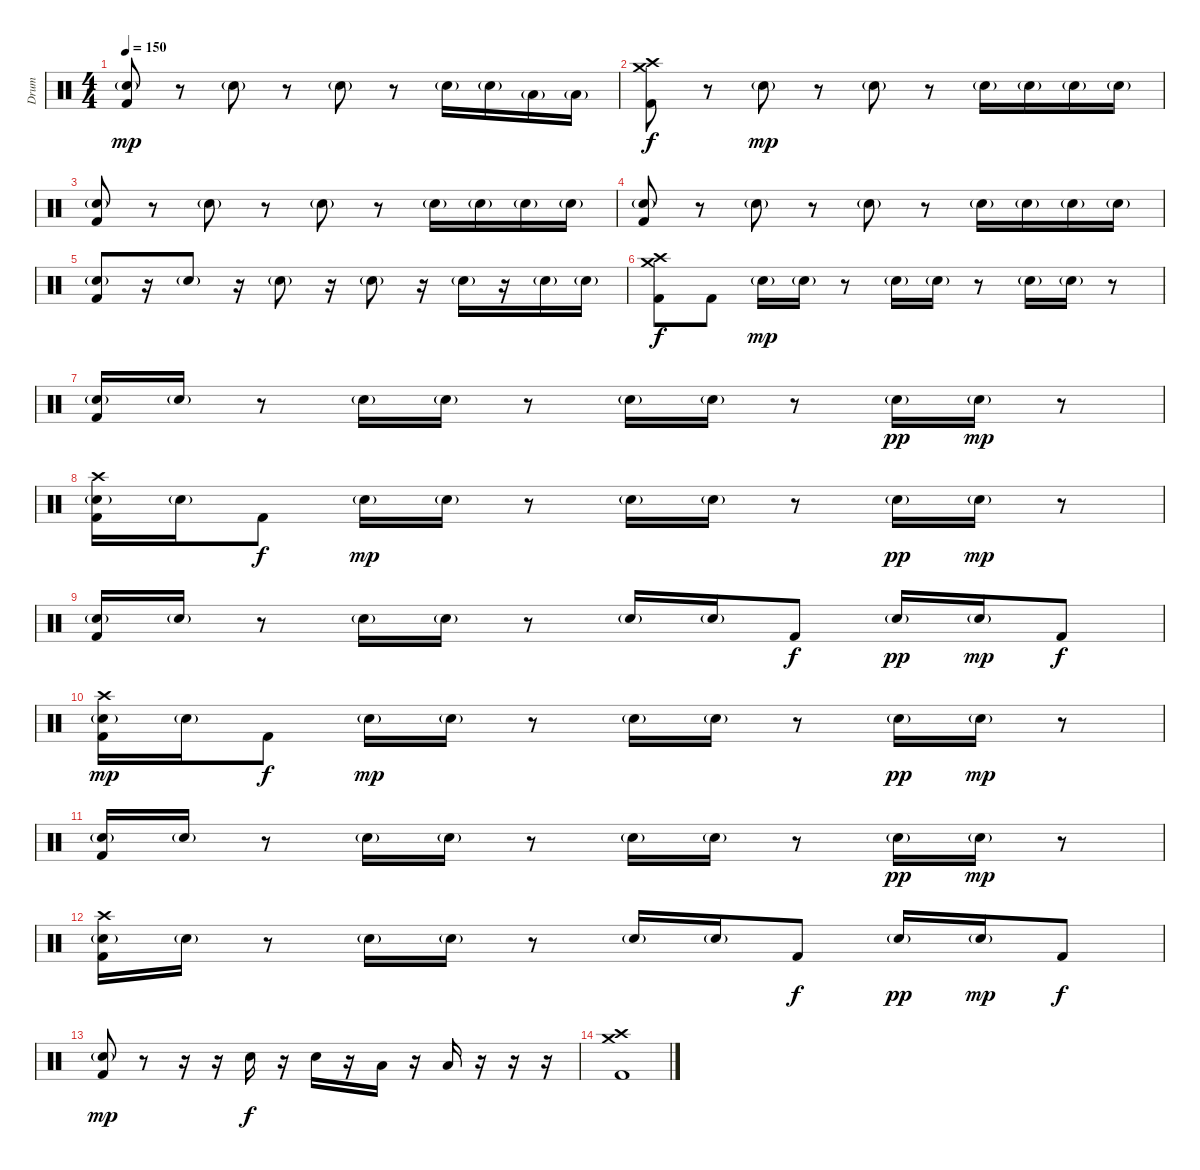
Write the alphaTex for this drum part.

\track ("Drum" "Drum") {instrument percussion}
\staff {score}
\articulation defaults
\ts (4 4)
\tempo 150
\clef neutral
\ks c
("Electric Snare (hit)"{g} "Kick (hit) 2").8{dy mp} r.8 "Electric Snare (hit)"{g}.8 r.8 "Electric Snare (hit)"{g}.8 r.8 "Electric Snare (hit)"{g}.16 "Electric Snare (hit)"{g}.16 "Low Floor Tom (hit)"{g}.16 "Low Floor Tom (hit)"{g}.16 |
("Crash high (hit)" "Crash medium (hit)" "Kick (hit) 2").8{dy f} r.8 "Electric Snare (hit)"{g}.8{dy mp} r.8 "Electric Snare (hit)"{g}.8 r.8 "Electric Snare (hit)"{g}.16 "Electric Snare (hit)"{g}.16 "Electric Snare (hit)"{g}.16 "Electric Snare (hit)"{g}.16 |
("Electric Snare (hit)"{g} "Kick (hit) 2").8 r.8 "Electric Snare (hit)"{g}.8 r.8 "Electric Snare (hit)"{g}.8 r.8 "Electric Snare (hit)"{g}.16 "Electric Snare (hit)"{g}.16 "Electric Snare (hit)"{g}.16 "Electric Snare (hit)"{g}.16 |
("Electric Snare (hit)"{g} "Kick (hit) 2").8 r.8 "Electric Snare (hit)"{g}.8 r.8 "Electric Snare (hit)"{g}.8 r.8 "Electric Snare (hit)"{g}.16 "Electric Snare (hit)"{g}.16 "Electric Snare (hit)"{g}.16 "Electric Snare (hit)"{g}.16 |
("Electric Snare (hit)"{g} "Kick (hit) 2").8 r.16 "Electric Snare (hit)"{g}.8 r.16 "Electric Snare (hit)"{g}.8 r.16 "Electric Snare (hit)"{g}.8 r.16 "Electric Snare (hit)"{g}.16 r.16 "Electric Snare (hit)"{g}.16 "Electric Snare (hit)"{g}.16 |
("Crash high (hit)" "Crash medium (hit)" "Kick (hit) 2").8{dy f} "Kick (hit) 2".8 "Electric Snare (hit)"{g}.16{dy mp} "Electric Snare (hit)"{g}.16 r.8 "Electric Snare (hit)"{g}.16 "Electric Snare (hit)"{g}.16 r.8 "Electric Snare (hit)"{g}.16 "Electric Snare (hit)"{g}.16 r.8 |
("Electric Snare (hit)"{g} "Kick (hit) 2").16 "Electric Snare (hit)"{g}.16 r.8 "Electric Snare (hit)"{g}.16 "Electric Snare (hit)"{g}.16 r.8 "Electric Snare (hit)"{g}.16 "Electric Snare (hit)"{g}.16 r.8 "Electric Snare (hit)"{g}.16{dy pp} "Electric Snare (hit)"{g}.16{dy mp} r.8 |
("Crash high (hit)" "Electric Snare (hit)"{g} "Kick (hit) 2").16 "Electric Snare (hit)"{g}.16 "Kick (hit) 2".8{dy f} "Electric Snare (hit)"{g}.16{dy mp} "Electric Snare (hit)"{g}.16 r.8 "Electric Snare (hit)"{g}.16 "Electric Snare (hit)"{g}.16 r.8 "Electric Snare (hit)"{g}.16{dy pp} "Electric Snare (hit)"{g}.16{dy mp} r.8 |
("Electric Snare (hit)"{g} "Kick (hit) 2").16 "Electric Snare (hit)"{g}.16 r.8 "Electric Snare (hit)"{g}.16 "Electric Snare (hit)"{g}.16 r.8 "Electric Snare (hit)"{g}.16 "Electric Snare (hit)"{g}.16 "Kick (hit) 2".8{dy f} "Electric Snare (hit)"{g}.16{dy pp} "Electric Snare (hit)"{g}.16{dy mp} "Kick (hit) 2".8{dy f} |
("Crash high (hit)" "Electric Snare (hit)"{g} "Kick (hit) 2").16{dy mp} "Electric Snare (hit)"{g}.16 "Kick (hit) 2".8{dy f} "Electric Snare (hit)"{g}.16{dy mp} "Electric Snare (hit)"{g}.16 r.8 "Electric Snare (hit)"{g}.16 "Electric Snare (hit)"{g}.16 r.8 "Electric Snare (hit)"{g}.16{dy pp} "Electric Snare (hit)"{g}.16{dy mp} r.8 |
("Electric Snare (hit)"{g} "Kick (hit) 2").16 "Electric Snare (hit)"{g}.16 r.8 "Electric Snare (hit)"{g}.16 "Electric Snare (hit)"{g}.16 r.8 "Electric Snare (hit)"{g}.16 "Electric Snare (hit)"{g}.16 r.8 "Electric Snare (hit)"{g}.16{dy pp} "Electric Snare (hit)"{g}.16{dy mp} r.8 |
("Crash high (hit)" "Electric Snare (hit)"{g} "Kick (hit) 2").16 "Electric Snare (hit)"{g}.16 r.8 "Electric Snare (hit)"{g}.16 "Electric Snare (hit)"{g}.16 r.8 "Electric Snare (hit)"{g}.16 "Electric Snare (hit)"{g}.16 "Kick (hit) 2".8{dy f} "Electric Snare (hit)"{g}.16{dy pp} "Electric Snare (hit)"{g}.16{dy mp} "Kick (hit) 2".8{dy f} |
("Electric Snare (hit)"{g} "Kick (hit) 2").8{dy mp} r.8 r.16 r.16 "Electric Snare (hit)".16{dy f} r.16 "Electric Snare (hit)".16 r.16 "Low Floor Tom (hit)".16 r.16 "Low Floor Tom (hit)".16 r.16 r.16 r.16 |
("Crash high (hit)" "Crash medium (hit)" "Kick (hit) 2").1
